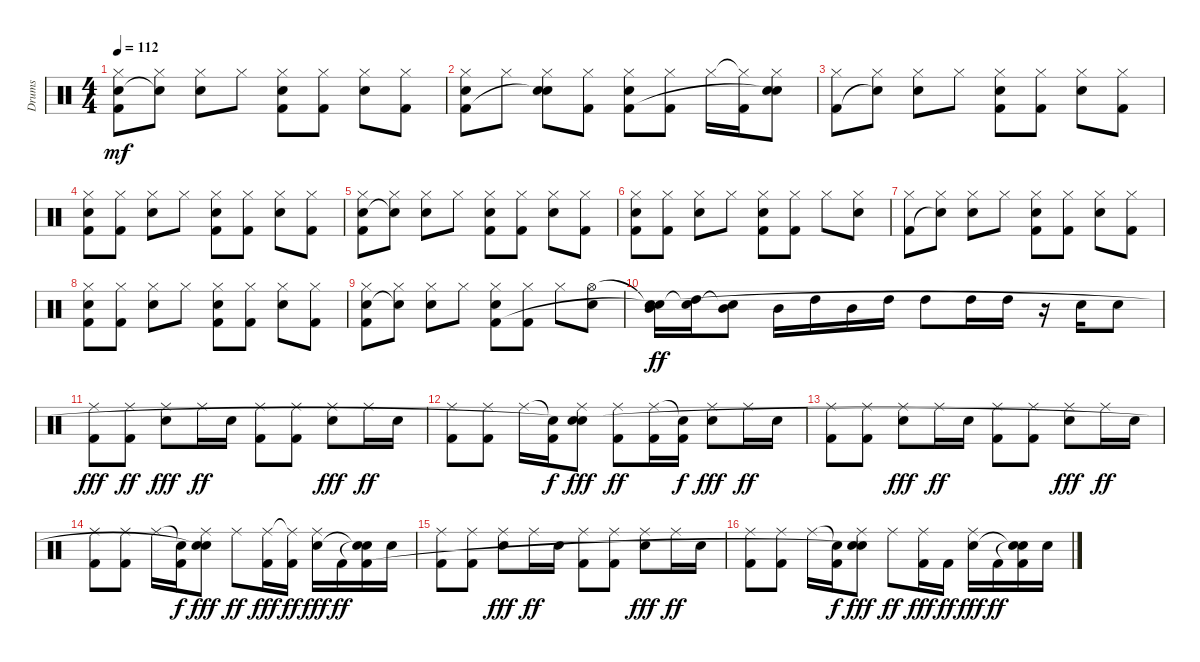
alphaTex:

\track ("Drums" "Drums") {instrument percussion}
\staff {score}
\articulation defaults
\ts (4 4)
\tempo 112
\clef neutral
\ks c
("Hi-Hat (closed)" "Electric Snare (hit)" "Kick (hit) 2").8{dy mf} ("Hi-Hat (closed)" "Snare (hit)"{t}).8 ("Hi-Hat (closed)" "Electric Snare (hit)").8 "Hi-Hat (closed)".8 ("Hi-Hat (closed)" "Electric Snare (hit)" "Kick (hit) 2").8 ("Hi-Hat (closed)" "Kick (hit) 2").8 ("Hi-Hat (closed)" "Electric Snare (hit)").8 ("Hi-Hat (closed)" "Kick (hit) 2").8 |
("Hi-Hat (closed)" "Electric Snare (hit)" "Kick (hit) 2").8 "Hi-Hat (closed)".8 ("Hi-Hat (closed)" "Electric Snare (hit)" "Snare (hit)"{t}).8 ("Hi-Hat (closed)" "Kick (hit) 2").8 ("Hi-Hat (closed)" "Electric Snare (hit)" "Kick (hit) 2").8 ("Hi-Hat (closed)" "Kick (hit) 2").8 "Hi-Hat (closed)".16 ("Hi-Hat (closed)"{t} "Kick (hit) 2").16 ("Hi-Hat (closed)" "Electric Snare (hit)" "Snare (hit)"{t}).8 |
("Hi-Hat (closed)" "Kick (hit) 2").8 ("Hi-Hat (closed)" "Snare (hit)"{t}).8 ("Hi-Hat (closed)" "Electric Snare (hit)").8 "Hi-Hat (closed)".8 ("Hi-Hat (closed)" "Electric Snare (hit)" "Kick (hit) 2").8 ("Hi-Hat (closed)" "Kick (hit) 2").8 ("Hi-Hat (closed)" "Electric Snare (hit)").8 ("Hi-Hat (closed)" "Kick (hit) 2").8 |
("Hi-Hat (closed)" "Electric Snare (hit)" "Kick (hit) 2").8 ("Hi-Hat (closed)" "Kick (hit) 2").8 ("Hi-Hat (closed)" "Electric Snare (hit)").8 "Hi-Hat (closed)".8 ("Hi-Hat (closed)" "Electric Snare (hit)" "Kick (hit) 2").8 ("Hi-Hat (closed)" "Kick (hit) 2").8 ("Hi-Hat (closed)" "Electric Snare (hit)").8 ("Hi-Hat (closed)" "Kick (hit) 2").8 |
("Hi-Hat (closed)" "Electric Snare (hit)" "Kick (hit) 2").8 ("Hi-Hat (closed)" "Snare (hit)"{t}).8 ("Hi-Hat (closed)" "Electric Snare (hit)").8 "Hi-Hat (closed)".8 ("Hi-Hat (closed)" "Electric Snare (hit)" "Kick (hit) 2").8 ("Hi-Hat (closed)" "Kick (hit) 2").8 ("Hi-Hat (closed)" "Electric Snare (hit)").8 ("Hi-Hat (closed)" "Kick (hit) 2").8 |
("Hi-Hat (closed)" "Electric Snare (hit)" "Kick (hit) 2").8 ("Hi-Hat (closed)" "Kick (hit) 2").8 ("Hi-Hat (closed)" "Electric Snare (hit)").8 "Hi-Hat (closed)".8 ("Hi-Hat (closed)" "Electric Snare (hit)" "Kick (hit) 2").8 ("Hi-Hat (closed)" "Kick (hit) 2").8 "Hi-Hat (closed)".8 ("Hi-Hat (closed)" "Electric Snare (hit)").8 |
("Hi-Hat (closed)" "Kick (hit) 2").8 ("Hi-Hat (closed)" "Snare (hit)"{t}).8 ("Hi-Hat (closed)" "Electric Snare (hit)").8 "Hi-Hat (closed)".8 ("Hi-Hat (closed)" "Electric Snare (hit)" "Kick (hit) 2").8 ("Hi-Hat (closed)" "Kick (hit) 2").8 ("Hi-Hat (closed)" "Electric Snare (hit)").8 ("Hi-Hat (closed)" "Kick (hit) 2").8 |
("Hi-Hat (closed)" "Electric Snare (hit)" "Kick (hit) 2").8 ("Hi-Hat (closed)" "Kick (hit) 2").8 ("Hi-Hat (closed)" "Electric Snare (hit)").8 "Hi-Hat (closed)".8 ("Hi-Hat (closed)" "Electric Snare (hit)" "Kick (hit) 2").8 ("Hi-Hat (closed)" "Kick (hit) 2").8 ("Hi-Hat (closed)" "Electric Snare (hit)").8 ("Hi-Hat (closed)" "Kick (hit) 2").8 |
("Hi-Hat (closed)" "Electric Snare (hit)" "Kick (hit) 2").8 ("Hi-Hat (closed)" "Snare (hit)"{t}).8 ("Hi-Hat (closed)" "Electric Snare (hit)").8 "Hi-Hat (closed)".8 ("Hi-Hat (closed)" "Electric Snare (hit)" "Kick (hit) 2").8 ("Hi-Hat (closed)" "Kick (hit) 2").8 "Hi-Hat (closed)".8 ("Hi-Hat (open)" "Electric Snare (hit)").8 |
("Snare (hit)"{t} "Mid Tom (hit)" "Snare (hit)"{t}).16{dy ff} ("Snare (hit)"{t} "High Tom (hit)").16 ("Snare (hit)"{t} "Mid Tom (hit)").8 "Mid Tom (hit)".16 "High Tom (hit)".16 "Mid Tom (hit)".16 "High Tom (hit)".16 "High Tom (hit)".8 "High Tom (hit)".16 "High Tom (hit)".16 r.16 "Electric Snare (hit)".16 "Electric Snare (hit)".8 |
("Ride (middle)" "Kick (hit) 2").8{dy fff} ("Ride (middle)" "Kick (hit) 2").8{dy ff} ("Ride (middle)" "Electric Snare (hit)").8{dy fff} "Ride (middle)".16{dy ff} "Electric Snare (hit)".16 ("Ride (middle)" "Kick (hit) 2").8 ("Ride (middle)" "Kick (hit) 2").8 ("Ride (middle)" "Electric Snare (hit)").8{dy fff} "Ride (middle)".16{dy ff} "Electric Snare (hit)".16 |
("Ride (middle)" "Kick (hit) 2").8 ("Ride (middle)" "Kick (hit) 2").8 "Ride (middle)".16 ("Snare (hit)"{t} "Kick (hit) 2").16{dy f} ("Ride (middle)" "Electric Snare (hit)" "Snare (hit)"{t}).8{dy fff} ("Ride (middle)" "Kick (hit) 2").8{dy ff} ("Ride (middle)" "Kick (hit) 2").16 ("Snare (hit)"{t} "Kick (hit) 2").16{dy f} ("Ride (middle)" "Electric Snare (hit)").8{dy fff} "Ride (middle)".16{dy ff} "Electric Snare (hit)".16 |
("Ride (middle)" "Kick (hit) 2").8 ("Ride (middle)" "Kick (hit) 2").8 ("Ride (middle)" "Electric Snare (hit)").8{dy fff} "Ride (middle)".16{dy ff} "Electric Snare (hit)".16 ("Ride (middle)" "Kick (hit) 2").8 ("Ride (middle)" "Kick (hit) 2").8 ("Ride (middle)" "Electric Snare (hit)").8{dy fff} "Ride (middle)".16{dy ff} "Electric Snare (hit)".16 |
("Ride (middle)" "Kick (hit) 2").8 ("Ride (middle)" "Kick (hit) 2").8 "Ride (middle)".16 ("Snare (hit)"{t} "Kick (hit) 2").16{dy f} ("Ride (middle)" "Electric Snare (hit)" "Snare (hit)"{t}).8{dy fff} "Ride (middle)".8{dy ff} ("Ride (middle)" "Kick (hit) 2").16{dy fff} ("Ride (middle)"{t} "Kick (hit) 2").16{dy ff} ("Ride (middle)" "Electric Snare (hit)").16{dy fff} "Kick (hit) 2".16{dy ff} ("Snare (hit)"{t} "Snare (hit)"{t} "Kick (hit) 2").16 "Electric Snare (hit)".16 |
("Ride (middle)" "Kick (hit) 2").8 ("Ride (middle)" "Kick (hit) 2").8 ("Ride (middle)" "Electric Snare (hit)").8{dy fff} "Ride (middle)".16{dy ff} "Electric Snare (hit)".16 ("Ride (middle)" "Kick (hit) 2").8 ("Ride (middle)" "Kick (hit) 2").8 ("Ride (middle)" "Electric Snare (hit)").8{dy fff} "Ride (middle)".16{dy ff} "Electric Snare (hit)".16 |
("Ride (middle)" "Kick (hit) 2").8 ("Ride (middle)" "Kick (hit) 2").8 "Ride (middle)".16 ("Snare (hit)"{t} "Kick (hit) 2").16{dy f} ("Ride (middle)" "Electric Snare (hit)" "Snare (hit)"{t}).8{dy fff} "Ride (middle)".8{dy ff} ("Ride (middle)" "Kick (hit) 2").16{dy fff} "Kick (hit) 2".16{dy ff} ("Ride (middle)" "Electric Snare (hit)").16{dy fff} "Kick (hit) 2".16{dy ff} ("Snare (hit)"{t} "Snare (hit)"{t} "Kick (hit) 2").16 "Electric Snare (hit)".16
